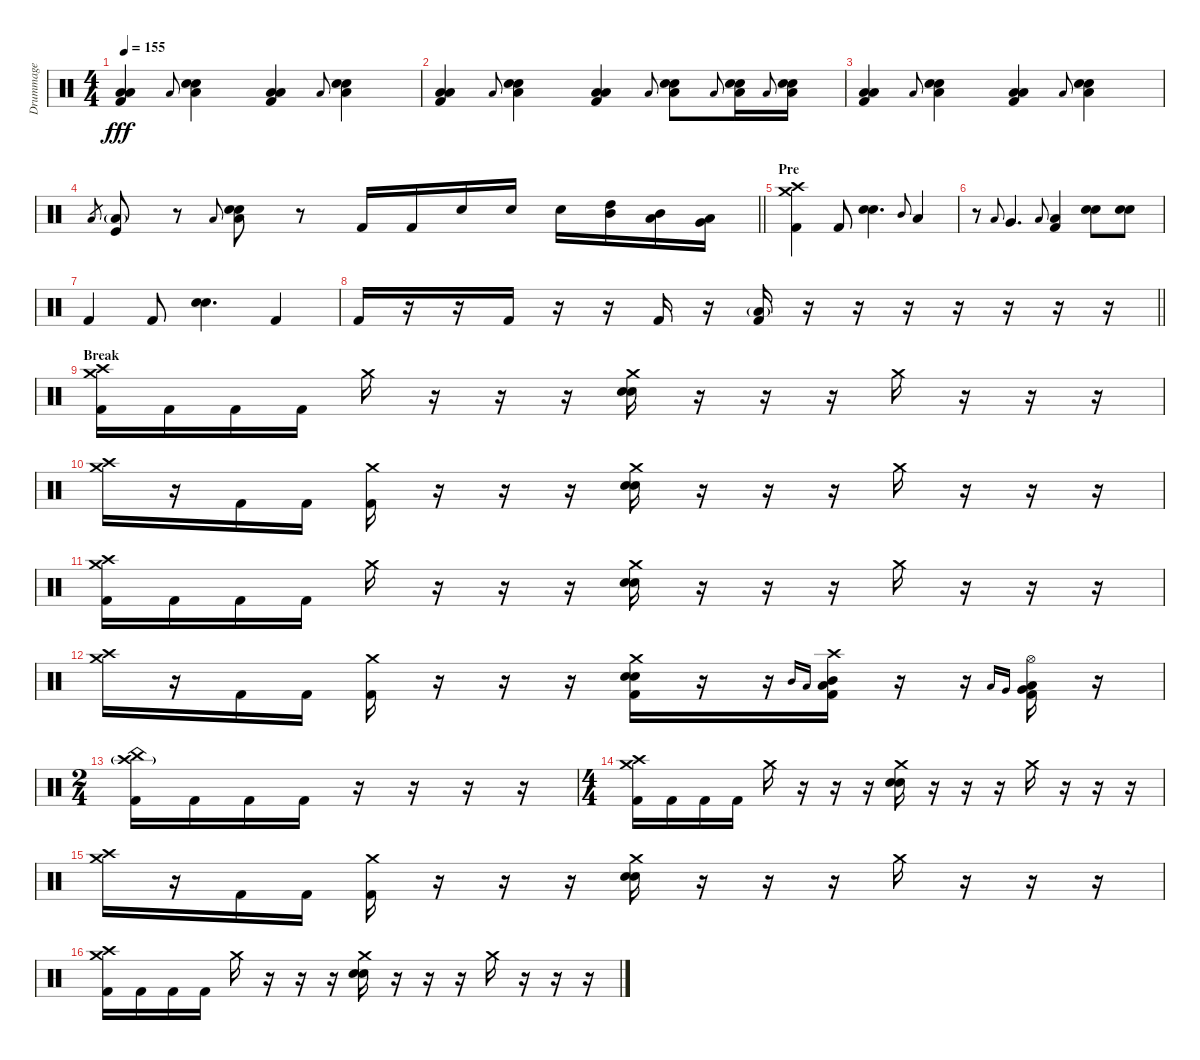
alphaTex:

\track ("Drummage" "Drummage") {instrument percussion}
\staff {score}
\articulation defaults
\ts (4 4)
\tempo 155
\clef neutral
\ks c
("Low Tom (hit)" "Low Floor Tom (hit)" "Kick (hit) 2").4{dy fff} "Low Floor Tom (hit)".8{gr onbeat} ("Snare (hit) 2" "Electric Snare (hit)" "Low Tom (hit)").4 ("Low Tom (hit)" "Low Floor Tom (hit)" "Kick (hit) 2").4 "Low Floor Tom (hit)".8{gr onbeat} ("Snare (hit) 2" "Electric Snare (hit)" "Low Tom (hit)").4 |
("Low Tom (hit)" "Low Floor Tom (hit)" "Kick (hit) 2").4 "Low Floor Tom (hit)".8{gr onbeat} ("Snare (hit) 2" "Electric Snare (hit)" "Low Tom (hit)").4 ("Low Tom (hit)" "Low Floor Tom (hit)" "Kick (hit) 2").4 "Low Floor Tom (hit)".8{gr onbeat} ("Snare (hit) 2" "Electric Snare (hit)" "Low Tom (hit)").8 "Low Floor Tom (hit)".8{gr onbeat} ("Snare (hit) 2" "Electric Snare (hit)" "Low Tom (hit)").16 "Low Floor Tom (hit)".8{gr onbeat} ("Snare (hit) 2" "Electric Snare (hit)" "Low Tom (hit)").16 |
("Low Tom (hit)" "Low Floor Tom (hit)" "Kick (hit) 2").4 "Low Floor Tom (hit)".8{gr onbeat} ("Snare (hit) 2" "Electric Snare (hit)" "Low Tom (hit)").4 ("Low Tom (hit)" "Low Floor Tom (hit)" "Kick (hit) 2").4 "Low Floor Tom (hit)".8{gr onbeat} ("Snare (hit) 2" "Electric Snare (hit)" "Low Tom (hit)").4 |
\barLineRight lightlight "Low Tom (hit)".8{gr}
("Kick (hit)" "Low Tom (hit)"{g}).8 r.8 "Low Floor Tom (hit)".8{gr onbeat} ("Snare (hit) 2" "Electric Snare (hit)" "Low Tom (hit)").8 r.8 "Kick (hit) 2".16 "Kick (hit) 2".16 "Electric Snare (hit)".16 "Electric Snare (hit)".16 "Electric Snare (hit)".16 ("High Tom (hit)" "Mid Tom (hit)").16 ("Mid Tom (hit)" "Low Tom (hit)").16 ("Low Tom (hit)" "Very Low Tom (hit)").16 |
\section ("" "Pre")
("Crash high (hit)" "Crash medium (hit)" "Kick (hit) 2").4 "Kick (hit) 2".8 ("Electric Snare (hit)" "Snare (hit) 2").4{d} "Mid Tom (hit)".8{gr onbeat} "Low Tom (hit)".4 |
r.8 "Low Floor Tom (hit)".8{gr onbeat} "Very Low Tom (hit)".4{d} "Low Tom (hit)".8{gr onbeat} ("Low Floor Tom (hit)" "Kick (hit) 2").4 ("Electric Snare (hit)" "Snare (hit) 2").8 ("Electric Snare (hit)" "Snare (hit) 2").8 |
"Kick (hit) 2".4 "Kick (hit) 2".8 ("Electric Snare (hit)" "Snare (hit) 2").4{d} "Kick (hit) 2".4 |
\barLineRight lightlight "Kick (hit) 2".16
r.16 r.16 "Kick (hit) 2".16 r.16 r.16 "Kick (hit) 2".16 r.16 ("Low Floor Tom (hit)"{g} "Kick (hit) 2").16 r.16 r.16 r.16 r.16 r.16 r.16 r.16 |
\section ("" "Break")
("Crash high (hit)" "Crash medium (hit)" "Kick (hit) 2").16 "Kick (hit) 2".16 "Kick (hit) 2".16 "Kick (hit) 2".16 "Crash medium (hit)".16 r.16 r.16 r.16 ("Crash medium (hit)" "Snare (hit) 2" "Electric Snare (hit)").16 r.16 r.16 r.16 "Crash medium (hit)".16 r.16 r.16 r.16 |
("Crash high (hit)" "Crash medium (hit)").16 r.16 "Kick (hit) 2".16 "Kick (hit) 2".16 ("Crash medium (hit)" "Kick (hit) 2").16 r.16 r.16 r.16 ("Crash medium (hit)" "Snare (hit) 2" "Electric Snare (hit)").16 r.16 r.16 r.16 "Crash medium (hit)".16 r.16 r.16 r.16 |
("Crash high (hit)" "Crash medium (hit)" "Kick (hit) 2").16 "Kick (hit) 2".16 "Kick (hit) 2".16 "Kick (hit) 2".16 "Crash medium (hit)".16 r.16 r.16 r.16 ("Crash medium (hit)" "Snare (hit) 2" "Electric Snare (hit)").16 r.16 r.16 r.16 "Crash medium (hit)".16 r.16 r.16 r.16 |
("Crash high (hit)" "Crash medium (hit)").16 r.16 "Kick (hit) 2".16 "Kick (hit) 2".16 ("Crash medium (hit)" "Kick (hit) 2").16 r.16 r.16 r.16 ("Crash medium (hit)" "Snare (hit) 2" "Electric Snare (hit)" "Kick (hit) 2").16 r.16 r.16 "Mid Tom (hit)".16{gr onbeat} "Low Tom (hit)".16{gr onbeat} ("Crash high (hit)" "Mid Tom (hit)" "Low Tom (hit)" "Kick (hit) 2").16 r.16 r.16 "Low Tom (hit)".16{gr onbeat} "Very Low Tom (hit)".16{gr onbeat} ("Hi-Hat (open)" "Low Tom (hit)" "Very Low Tom (hit)" "Kick (hit) 2").16 r.16 |
\ts (2 4)
("Crash high (hit)"{g} "China (hit)" "Kick (hit) 2").16 "Kick (hit) 2".16 "Kick (hit) 2".16 "Kick (hit) 2".16 r.16 r.16 r.16 r.16 |
\ts (4 4)
("Crash high (hit)" "Crash medium (hit)" "Kick (hit) 2").16 "Kick (hit) 2".16 "Kick (hit) 2".16 "Kick (hit) 2".16 "Crash medium (hit)".16 r.16 r.16 r.16 ("Crash medium (hit)" "Snare (hit) 2" "Electric Snare (hit)").16 r.16 r.16 r.16 "Crash medium (hit)".16 r.16 r.16 r.16 |
("Crash high (hit)" "Crash medium (hit)").16 r.16 "Kick (hit) 2".16 "Kick (hit) 2".16 ("Crash medium (hit)" "Kick (hit) 2").16 r.16 r.16 r.16 ("Crash medium (hit)" "Snare (hit) 2" "Electric Snare (hit)").16 r.16 r.16 r.16 "Crash medium (hit)".16 r.16 r.16 r.16 |
("Crash high (hit)" "Crash medium (hit)" "Kick (hit) 2").16 "Kick (hit) 2".16 "Kick (hit) 2".16 "Kick (hit) 2".16 "Crash medium (hit)".16 r.16 r.16 r.16 ("Crash medium (hit)" "Snare (hit) 2" "Electric Snare (hit)").16 r.16 r.16 r.16 "Crash medium (hit)".16 r.16 r.16 r.16
